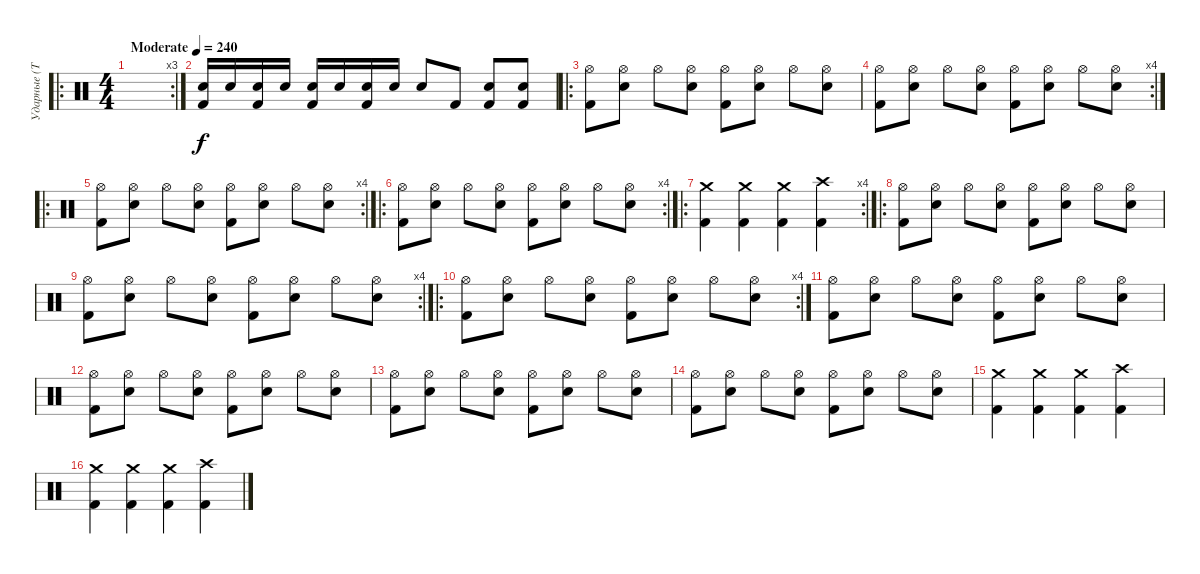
\track ("Ударные (Тьодальв)" "Ударные (Т") {instrument percussion}
\staff {score}
\articulation defaults
\ro
\rc 3
\ts (4 4)
\tempo (240 "Moderate")
\clef neutral
\ks c
|
("Snare (hit) 2" "Kick (hit) 2").16 "Snare (hit) 2".16 ("Snare (hit) 2" "Kick (hit) 2").16 "Snare (hit) 2".16 ("Snare (hit) 2" "Kick (hit) 2").16 "Snare (hit) 2".16 ("Snare (hit) 2" "Kick (hit) 2").16 "Snare (hit) 2".16 "Snare (hit) 2".8 "Kick (hit) 2".8 ("Snare (hit) 2" "Kick (hit) 2").8 ("Snare (hit) 2" "Kick (hit) 2").8 |
\ro
("Hi-Hat (open)" "Kick (hit) 2").8 ("Hi-Hat (open)" "Snare (hit) 2").8 "Hi-Hat (open)".8 ("Hi-Hat (open)" "Snare (hit) 2").8 ("Hi-Hat (open)" "Kick (hit) 2").8 ("Hi-Hat (open)" "Snare (hit) 2").8 "Hi-Hat (open)".8 ("Hi-Hat (open)" "Snare (hit) 2").8 |
\rc 4
("Hi-Hat (open)" "Kick (hit) 2").8 ("Hi-Hat (open)" "Snare (hit) 2").8 "Hi-Hat (open)".8 ("Hi-Hat (open)" "Snare (hit) 2").8 ("Hi-Hat (open)" "Kick (hit) 2").8 ("Hi-Hat (open)" "Snare (hit) 2").8 "Hi-Hat (open)".8 ("Hi-Hat (open)" "Snare (hit) 2").8 |
\ro
\rc 4
("Hi-Hat (open)" "Kick (hit) 2").8 ("Hi-Hat (open)" "Snare (hit) 2").8 "Hi-Hat (open)".8 ("Hi-Hat (open)" "Snare (hit) 2").8 ("Hi-Hat (open)" "Kick (hit) 2").8 ("Hi-Hat (open)" "Snare (hit) 2").8 "Hi-Hat (open)".8 ("Hi-Hat (open)" "Snare (hit) 2").8 |
\ro
\rc 4
("Hi-Hat (open)" "Kick (hit) 2").8 ("Hi-Hat (open)" "Snare (hit) 2").8 "Hi-Hat (open)".8 ("Hi-Hat (open)" "Snare (hit) 2").8 ("Hi-Hat (open)" "Kick (hit) 2").8 ("Hi-Hat (open)" "Snare (hit) 2").8 "Hi-Hat (open)".8 ("Hi-Hat (open)" "Snare (hit) 2").8 |
\ro
\rc 4
("Crash medium (hit)" "Kick (hit) 2").4 ("Crash medium (hit)" "Kick (hit) 2").4 ("Crash medium (hit)" "Kick (hit) 2").4 ("Crash high (hit)" "Kick (hit) 2").4 |
\ro
("Hi-Hat (open)" "Kick (hit) 2").8 ("Hi-Hat (open)" "Snare (hit) 2").8 "Hi-Hat (open)".8 ("Hi-Hat (open)" "Snare (hit) 2").8 ("Hi-Hat (open)" "Kick (hit) 2").8 ("Hi-Hat (open)" "Snare (hit) 2").8 "Hi-Hat (open)".8 ("Hi-Hat (open)" "Snare (hit) 2").8 |
\rc 4
("Hi-Hat (open)" "Kick (hit) 2").8 ("Hi-Hat (open)" "Snare (hit) 2").8 "Hi-Hat (open)".8 ("Hi-Hat (open)" "Snare (hit) 2").8 ("Hi-Hat (open)" "Kick (hit) 2").8 ("Hi-Hat (open)" "Snare (hit) 2").8 "Hi-Hat (open)".8 ("Hi-Hat (open)" "Snare (hit) 2").8 |
\ro
\rc 4
("Hi-Hat (open)" "Kick (hit) 2").8 ("Hi-Hat (open)" "Snare (hit) 2").8 "Hi-Hat (open)".8 ("Hi-Hat (open)" "Snare (hit) 2").8 ("Hi-Hat (open)" "Kick (hit) 2").8 ("Hi-Hat (open)" "Snare (hit) 2").8 "Hi-Hat (open)".8 ("Hi-Hat (open)" "Snare (hit) 2").8 |
("Hi-Hat (open)" "Kick (hit) 2").8 ("Hi-Hat (open)" "Snare (hit) 2").8 "Hi-Hat (open)".8 ("Hi-Hat (open)" "Snare (hit) 2").8 ("Hi-Hat (open)" "Kick (hit) 2").8 ("Hi-Hat (open)" "Snare (hit) 2").8 "Hi-Hat (open)".8 ("Hi-Hat (open)" "Snare (hit) 2").8 |
("Hi-Hat (open)" "Kick (hit) 2").8 ("Hi-Hat (open)" "Snare (hit) 2").8 "Hi-Hat (open)".8 ("Hi-Hat (open)" "Snare (hit) 2").8 ("Hi-Hat (open)" "Kick (hit) 2").8 ("Hi-Hat (open)" "Snare (hit) 2").8 "Hi-Hat (open)".8 ("Hi-Hat (open)" "Snare (hit) 2").8 |
("Hi-Hat (open)" "Kick (hit) 2").8 ("Hi-Hat (open)" "Snare (hit) 2").8 "Hi-Hat (open)".8 ("Hi-Hat (open)" "Snare (hit) 2").8 ("Hi-Hat (open)" "Kick (hit) 2").8 ("Hi-Hat (open)" "Snare (hit) 2").8 "Hi-Hat (open)".8 ("Hi-Hat (open)" "Snare (hit) 2").8 |
("Hi-Hat (open)" "Kick (hit) 2").8 ("Hi-Hat (open)" "Snare (hit) 2").8 "Hi-Hat (open)".8 ("Hi-Hat (open)" "Snare (hit) 2").8 ("Hi-Hat (open)" "Kick (hit) 2").8 ("Hi-Hat (open)" "Snare (hit) 2").8 "Hi-Hat (open)".8 ("Hi-Hat (open)" "Snare (hit) 2").8 |
("Crash medium (hit)" "Kick (hit) 2").4 ("Crash medium (hit)" "Kick (hit) 2").4 ("Crash medium (hit)" "Kick (hit) 2").4 ("Crash high (hit)" "Kick (hit) 2").4 |
("Crash medium (hit)" "Kick (hit) 2").4 ("Crash medium (hit)" "Kick (hit) 2").4 ("Crash medium (hit)" "Kick (hit) 2").4 ("Crash high (hit)" "Kick (hit) 2").4
